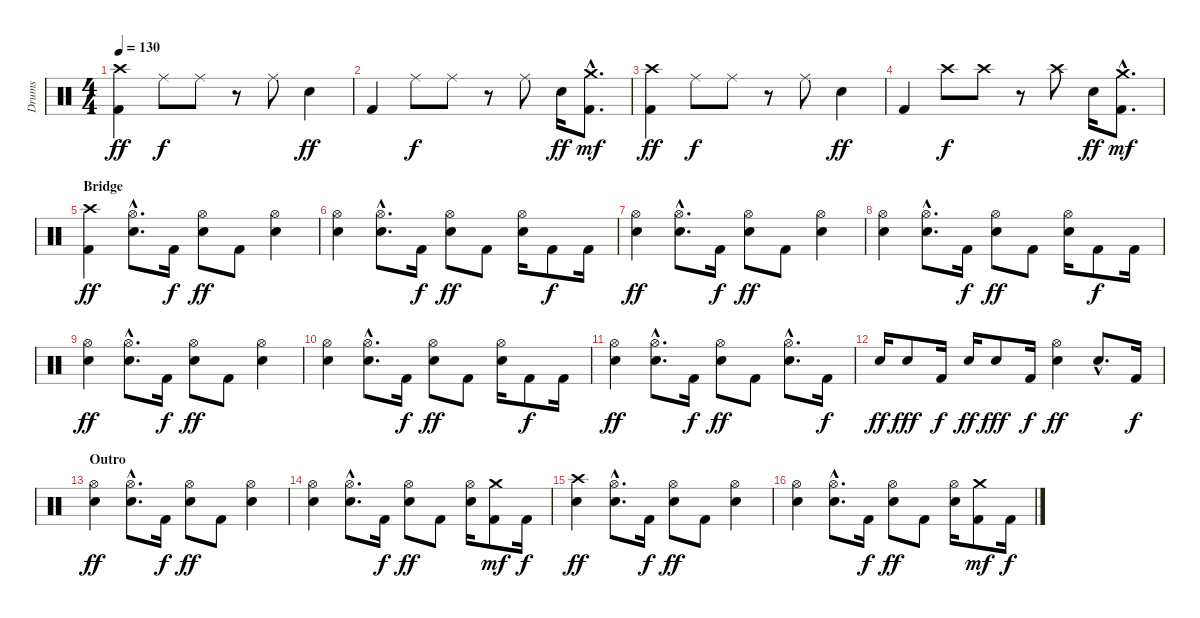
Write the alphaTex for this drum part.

\track ("Drums" "Drums") {instrument percussion}
\staff {score}
\articulation defaults
\ts (4 4)
\tempo 130
\clef neutral
\ks c
("Crash high (hit)" "Kick (hit) 2").4{dy ff} "Ride (middle)".8{dy f} "Ride (middle)".8 r.8 "Ride (middle)".8 "Electric Snare (hit)".4{dy ff} |
"Kick (hit) 2".4 "Ride (middle)".8{dy f} "Ride (middle)".8 r.8 "Ride (middle)".8 "Electric Snare (hit)".16{dy ff} ("Crash medium (hit)"{hac} "Kick (hit) 2"{hac}).8{d dy mf} |
("Crash high (hit)" "Kick (hit) 2").4{dy ff} "Ride (middle)".8{dy f} "Ride (middle)".8 r.8 "Ride (middle)".8 "Electric Snare (hit)".4{dy ff} |
"Kick (hit) 2".4 "Crash high (hit)".8{dy f} "Crash high (hit)".8 r.8 "Crash high (hit)".8 "Electric Snare (hit)".16{dy ff} ("Crash medium (hit)"{hac} "Kick (hit) 2"{hac}).8{d dy mf} |
\section ("" "Bridge")
("Crash high (hit)" "Kick (hit) 2").4{dy ff} ("Hi-Hat (open)"{hac} "Electric Snare (hit)"{hac}).8{d} "Kick (hit) 2".16{dy f} ("Hi-Hat (open)" "Electric Snare (hit)").8{dy ff} "Kick (hit) 2".8 ("Hi-Hat (open)" "Electric Snare (hit)").4 |
("Hi-Hat (open)" "Electric Snare (hit)").4 ("Hi-Hat (open)"{hac} "Electric Snare (hit)"{hac}).8{d} "Kick (hit) 2".16{dy f} ("Hi-Hat (open)" "Electric Snare (hit)").8{dy ff} "Kick (hit) 2".8 ("Hi-Hat (open)" "Electric Snare (hit)").16 "Kick (hit) 2".8{dy f} "Kick (hit) 2".16 |
("Hi-Hat (open)" "Electric Snare (hit)").4{dy ff} ("Hi-Hat (open)"{hac} "Electric Snare (hit)"{hac}).8{d} "Kick (hit) 2".16{dy f} ("Hi-Hat (open)" "Electric Snare (hit)").8{dy ff} "Kick (hit) 2".8 ("Hi-Hat (open)" "Electric Snare (hit)").4 |
("Hi-Hat (open)" "Electric Snare (hit)").4 ("Hi-Hat (open)"{hac} "Electric Snare (hit)"{hac}).8{d} "Kick (hit) 2".16{dy f} ("Hi-Hat (open)" "Electric Snare (hit)").8{dy ff} "Kick (hit) 2".8 ("Hi-Hat (open)" "Electric Snare (hit)").16 "Kick (hit) 2".8{dy f} "Kick (hit) 2".16 |
("Hi-Hat (open)" "Electric Snare (hit)").4{dy ff} ("Hi-Hat (open)"{hac} "Electric Snare (hit)"{hac}).8{d} "Kick (hit) 2".16{dy f} ("Hi-Hat (open)" "Electric Snare (hit)").8{dy ff} "Kick (hit) 2".8 ("Hi-Hat (open)" "Electric Snare (hit)").4 |
("Hi-Hat (open)" "Electric Snare (hit)").4 ("Hi-Hat (open)"{hac} "Electric Snare (hit)"{hac}).8{d} "Kick (hit) 2".16{dy f} ("Hi-Hat (open)" "Electric Snare (hit)").8{dy ff} "Kick (hit) 2".8 ("Hi-Hat (open)" "Electric Snare (hit)").16 "Kick (hit) 2".8{dy f} "Kick (hit) 2".16 |
("Hi-Hat (open)" "Electric Snare (hit)").4{dy ff} ("Hi-Hat (open)"{hac} "Electric Snare (hit)"{hac}).8{d} "Kick (hit) 2".16{dy f} ("Hi-Hat (open)" "Electric Snare (hit)").8{dy ff} "Kick (hit) 2".8 ("Hi-Hat (open)"{hac} "Electric Snare (hit)"{hac}).8{d} "Kick (hit) 2".16{dy f} |
"Electric Snare (hit)".16{dy ff} "Electric Snare (hit)".8{dy fff} "Kick (hit) 2".16{dy f} "Electric Snare (hit)".16{dy ff} "Electric Snare (hit)".8{dy fff} "Kick (hit) 2".16{dy f} ("Hi-Hat (open)" "Electric Snare (hit)").4{dy ff} "Electric Snare (hit)"{hac}.8{d} "Kick (hit) 2".16{dy f} |
\section ("" "Outro")
("Hi-Hat (open)" "Electric Snare (hit)").4{dy ff} ("Hi-Hat (open)"{hac} "Electric Snare (hit)"{hac}).8{d} "Kick (hit) 2".16{dy f} ("Hi-Hat (open)" "Electric Snare (hit)").8{dy ff} "Kick (hit) 2".8 ("Hi-Hat (open)" "Electric Snare (hit)").4 |
("Hi-Hat (open)" "Electric Snare (hit)").4 ("Hi-Hat (open)"{hac} "Electric Snare (hit)"{hac}).8{d} "Kick (hit) 2".16{dy f} ("Hi-Hat (open)" "Electric Snare (hit)").8{dy ff} "Kick (hit) 2".8 ("Hi-Hat (open)" "Electric Snare (hit)").16 ("Crash medium (hit)" "Kick (hit) 2").8{dy mf} "Kick (hit) 2".16{dy f} |
("Crash high (hit)" "Electric Snare (hit)").4{dy ff} ("Hi-Hat (open)"{hac} "Electric Snare (hit)"{hac}).8{d} "Kick (hit) 2".16{dy f} ("Hi-Hat (open)" "Electric Snare (hit)").8{dy ff} "Kick (hit) 2".8 ("Hi-Hat (open)" "Electric Snare (hit)").4 |
("Hi-Hat (open)" "Electric Snare (hit)").4 ("Hi-Hat (open)"{hac} "Electric Snare (hit)"{hac}).8{d} "Kick (hit) 2".16{dy f} ("Hi-Hat (open)" "Electric Snare (hit)").8{dy ff} "Kick (hit) 2".8 ("Hi-Hat (open)" "Electric Snare (hit)").16 ("Crash medium (hit)" "Kick (hit) 2").8{dy mf} "Kick (hit) 2".16{dy f}
